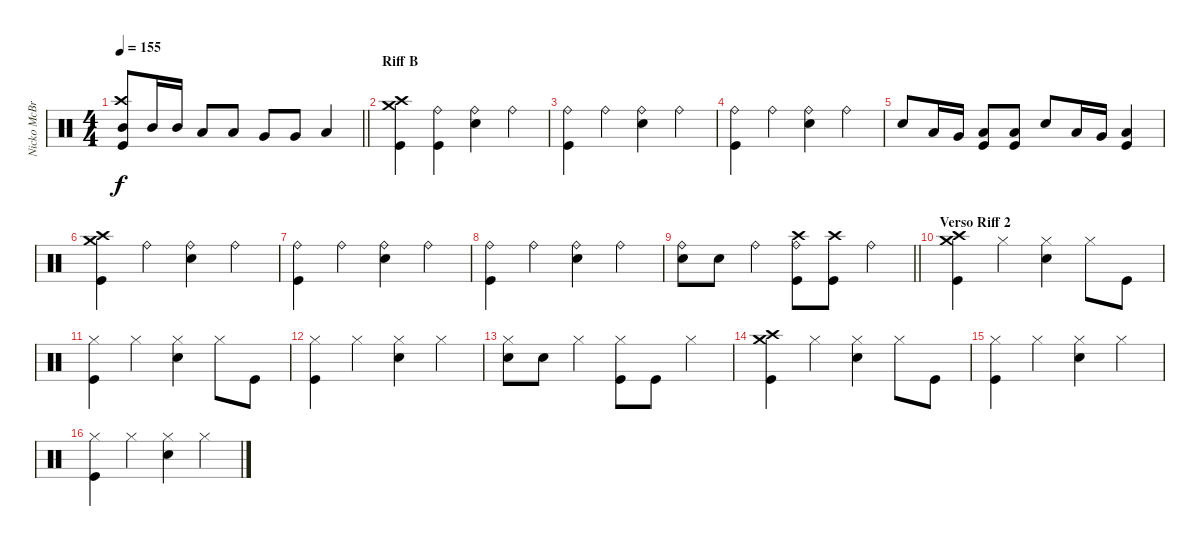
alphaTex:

\track ("Nicko McBrain" "Nicko McBr") {instrument percussion}
\staff {score}
\articulation defaults
\ts (4 4)
\tempo 155
\clef neutral
\barLineRight lightlight
\ks c
("Mid Tom (hit)" "Crash high (hit)" "Kick (hit)").8{dy f} "Mid Tom (hit)".16 "Mid Tom (hit)".16 "Low Tom (hit)".8 "Low Tom (hit)".8 "Very Low Tom (hit)".8 "Very Low Tom (hit)".8 "Low Floor Tom (hit)".4 |
\section ("" "Riff B")
("Crash medium (hit)" "Crash high (hit)" "Kick (hit)").4 ("Ride (bell)" "Kick (hit)").4 ("Ride (bell)" "Snare (hit) 2").4 "Ride (bell)".4 |
("Ride (bell)" "Kick (hit)").4 "Ride (bell)".4 ("Ride (bell)" "Snare (hit) 2").4 "Ride (bell)".4 |
("Ride (bell)" "Kick (hit)").4 "Ride (bell)".4 ("Ride (bell)" "Snare (hit) 2").4 "Ride (bell)".4 |
"Snare (hit) 2".8 "Low Tom (hit)".16 "Very Low Tom (hit)".16 ("Low Floor Tom (hit)" "Kick (hit)").8 ("Low Floor Tom (hit)" "Kick (hit)").8 "Snare (hit) 2".8 "Low Tom (hit)".16 "Very Low Tom (hit)".16 ("Low Floor Tom (hit)" "Kick (hit)").4 |
("Crash medium (hit)" "Crash high (hit)" "Kick (hit)").4 "Ride (bell)".4 ("Ride (bell)" "Snare (hit) 2").4 "Ride (bell)".4 |
("Ride (bell)" "Kick (hit)").4 "Ride (bell)".4 ("Ride (bell)" "Snare (hit) 2").4 "Ride (bell)".4 |
("Ride (bell)" "Kick (hit)").4 "Ride (bell)".4 ("Ride (bell)" "Snare (hit) 2").4 "Ride (bell)".4 |
\barLineRight lightlight
("Ride (bell)" "Snare (hit) 2").8 "Snare (hit) 2".8 "Ride (bell)".4 ("Ride (bell)" "Crash high (hit)" "Kick (hit)").8 ("Crash high (hit)" "Kick (hit)").8 "Ride (bell)".4 |
\section ("" "Verso Riff 2")
("Crash medium (hit)" "Crash high (hit)" "Kick (hit)").4 "Hi-Hat (closed)".4 ("Hi-Hat (closed)" "Snare (hit) 2").4 "Hi-Hat (closed)".8 "Kick (hit)".8 |
("Hi-Hat (closed)" "Kick (hit)").4 "Hi-Hat (closed)".4 ("Hi-Hat (closed)" "Snare (hit) 2").4 "Hi-Hat (closed)".8 "Kick (hit)".8 |
("Hi-Hat (closed)" "Kick (hit)").4 "Hi-Hat (closed)".4 ("Hi-Hat (closed)" "Snare (hit) 2").4 "Hi-Hat (closed)".4 |
("Hi-Hat (closed)" "Snare (hit) 2").8 "Snare (hit) 2".8 "Hi-Hat (closed)".4 ("Hi-Hat (closed)" "Kick (hit)").8 "Kick (hit)".8 "Hi-Hat (closed)".4 |
("Crash medium (hit)" "Crash high (hit)" "Kick (hit)").4 "Hi-Hat (closed)".4 ("Hi-Hat (closed)" "Snare (hit) 2").4 "Hi-Hat (closed)".8 "Kick (hit)".8 |
("Hi-Hat (closed)" "Kick (hit)").4 "Hi-Hat (closed)".4 ("Hi-Hat (closed)" "Snare (hit) 2").4 "Hi-Hat (closed)".4 |
("Hi-Hat (closed)" "Kick (hit)").4 "Hi-Hat (closed)".4 ("Hi-Hat (closed)" "Snare (hit) 2").4 "Hi-Hat (closed)".4
